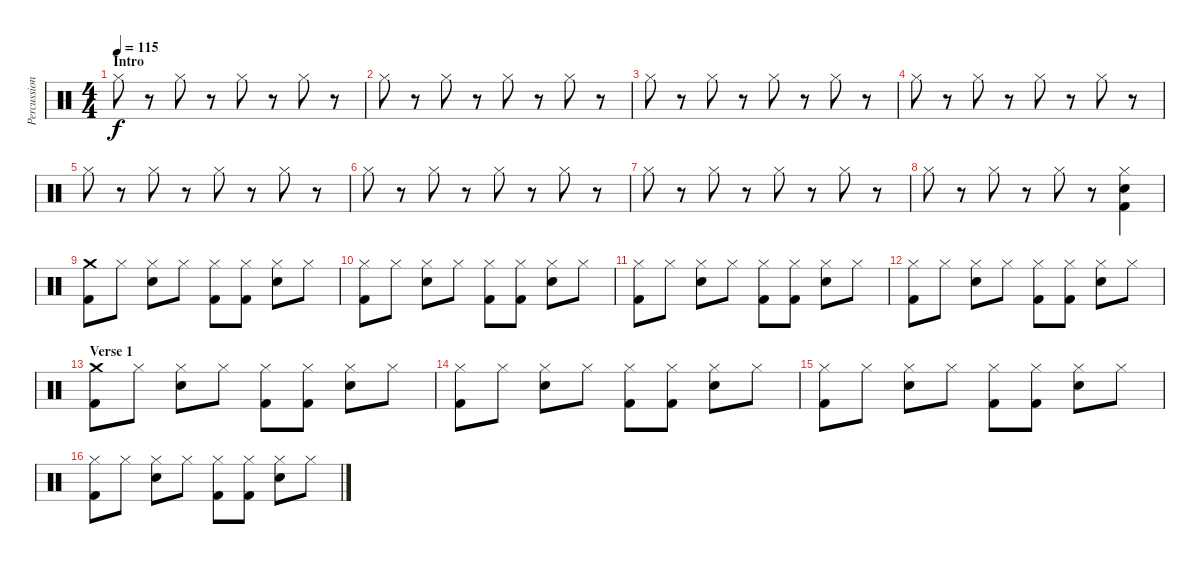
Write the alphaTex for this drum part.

\track ("Percussions" "Percussion") {instrument percussion}
\staff {score}
\articulation defaults
\ts (4 4)
\section ("" "Intro")
\tempo 115
\clef neutral
\ks c "Hi-Hat (closed)".8{dy f volume 7}
r.8 "Hi-Hat (closed)".8 r.8 "Hi-Hat (closed)".8 r.8 "Hi-Hat (closed)".8 r.8 |
"Hi-Hat (closed)".8 r.8 "Hi-Hat (closed)".8 r.8 "Hi-Hat (closed)".8 r.8 "Hi-Hat (closed)".8 r.8 |
"Hi-Hat (closed)".8 r.8 "Hi-Hat (closed)".8 r.8 "Hi-Hat (closed)".8 r.8 "Hi-Hat (closed)".8 r.8 |
"Hi-Hat (closed)".8 r.8 "Hi-Hat (closed)".8 r.8 "Hi-Hat (closed)".8 r.8 "Hi-Hat (closed)".8 r.8 |
"Hi-Hat (closed)".8 r.8 "Hi-Hat (closed)".8 r.8 "Hi-Hat (closed)".8 r.8 "Hi-Hat (closed)".8 r.8 |
"Hi-Hat (closed)".8 r.8 "Hi-Hat (closed)".8 r.8 "Hi-Hat (closed)".8 r.8 "Hi-Hat (closed)".8 r.8 |
"Hi-Hat (closed)".8 r.8 "Hi-Hat (closed)".8 r.8 "Hi-Hat (closed)".8 r.8 "Hi-Hat (closed)".8 r.8 |
"Hi-Hat (closed)".8 r.8 "Hi-Hat (closed)".8 r.8 "Hi-Hat (closed)".8 r.8 ("Hi-Hat (closed)" "Electric Snare (hit)" "Kick (hit) 2").4{volume 13} |
("Crash medium (hit)" "Kick (hit) 2").8 "Hi-Hat (closed)".8 ("Hi-Hat (closed)" "Electric Snare (hit)").8 "Hi-Hat (closed)".8 ("Hi-Hat (closed)" "Kick (hit) 2").8 ("Hi-Hat (closed)" "Kick (hit) 2").8 ("Hi-Hat (closed)" "Electric Snare (hit)").8 "Hi-Hat (closed)".8 |
("Hi-Hat (closed)" "Kick (hit) 2").8 "Hi-Hat (closed)".8 ("Hi-Hat (closed)" "Electric Snare (hit)").8 "Hi-Hat (closed)".8 ("Hi-Hat (closed)" "Kick (hit) 2").8 ("Hi-Hat (closed)" "Kick (hit) 2").8 ("Hi-Hat (closed)" "Electric Snare (hit)").8 "Hi-Hat (closed)".8 |
("Hi-Hat (closed)" "Kick (hit) 2").8 "Hi-Hat (closed)".8 ("Hi-Hat (closed)" "Electric Snare (hit)").8 "Hi-Hat (closed)".8 ("Hi-Hat (closed)" "Kick (hit) 2").8 ("Hi-Hat (closed)" "Kick (hit) 2").8 ("Hi-Hat (closed)" "Electric Snare (hit)").8 "Hi-Hat (closed)".8 |
("Hi-Hat (closed)" "Kick (hit) 2").8 "Hi-Hat (closed)".8 ("Hi-Hat (closed)" "Electric Snare (hit)").8 "Hi-Hat (closed)".8 ("Hi-Hat (closed)" "Kick (hit) 2").8 ("Hi-Hat (closed)" "Kick (hit) 2").8 ("Hi-Hat (closed)" "Electric Snare (hit)").8 "Hi-Hat (closed)".8 |
\section ("" "Verse 1")
("Crash medium (hit)" "Kick (hit) 2").8 "Hi-Hat (closed)".8 ("Hi-Hat (closed)" "Electric Snare (hit)").8 "Hi-Hat (closed)".8 ("Hi-Hat (closed)" "Kick (hit) 2").8 ("Hi-Hat (closed)" "Kick (hit) 2").8 ("Hi-Hat (closed)" "Electric Snare (hit)").8 "Hi-Hat (closed)".8 |
("Hi-Hat (closed)" "Kick (hit) 2").8 "Hi-Hat (closed)".8 ("Hi-Hat (closed)" "Electric Snare (hit)").8 "Hi-Hat (closed)".8 ("Hi-Hat (closed)" "Kick (hit) 2").8 ("Hi-Hat (closed)" "Kick (hit) 2").8 ("Hi-Hat (closed)" "Electric Snare (hit)").8 "Hi-Hat (closed)".8 |
("Hi-Hat (closed)" "Kick (hit) 2").8 "Hi-Hat (closed)".8 ("Hi-Hat (closed)" "Electric Snare (hit)").8 "Hi-Hat (closed)".8 ("Hi-Hat (closed)" "Kick (hit) 2").8 ("Hi-Hat (closed)" "Kick (hit) 2").8 ("Hi-Hat (closed)" "Electric Snare (hit)").8 "Hi-Hat (closed)".8 |
("Hi-Hat (closed)" "Kick (hit) 2").8 "Hi-Hat (closed)".8 ("Hi-Hat (closed)" "Electric Snare (hit)").8 "Hi-Hat (closed)".8 ("Hi-Hat (closed)" "Kick (hit) 2").8 ("Hi-Hat (closed)" "Kick (hit) 2").8 ("Hi-Hat (closed)" "Electric Snare (hit)").8 "Hi-Hat (closed)".8
